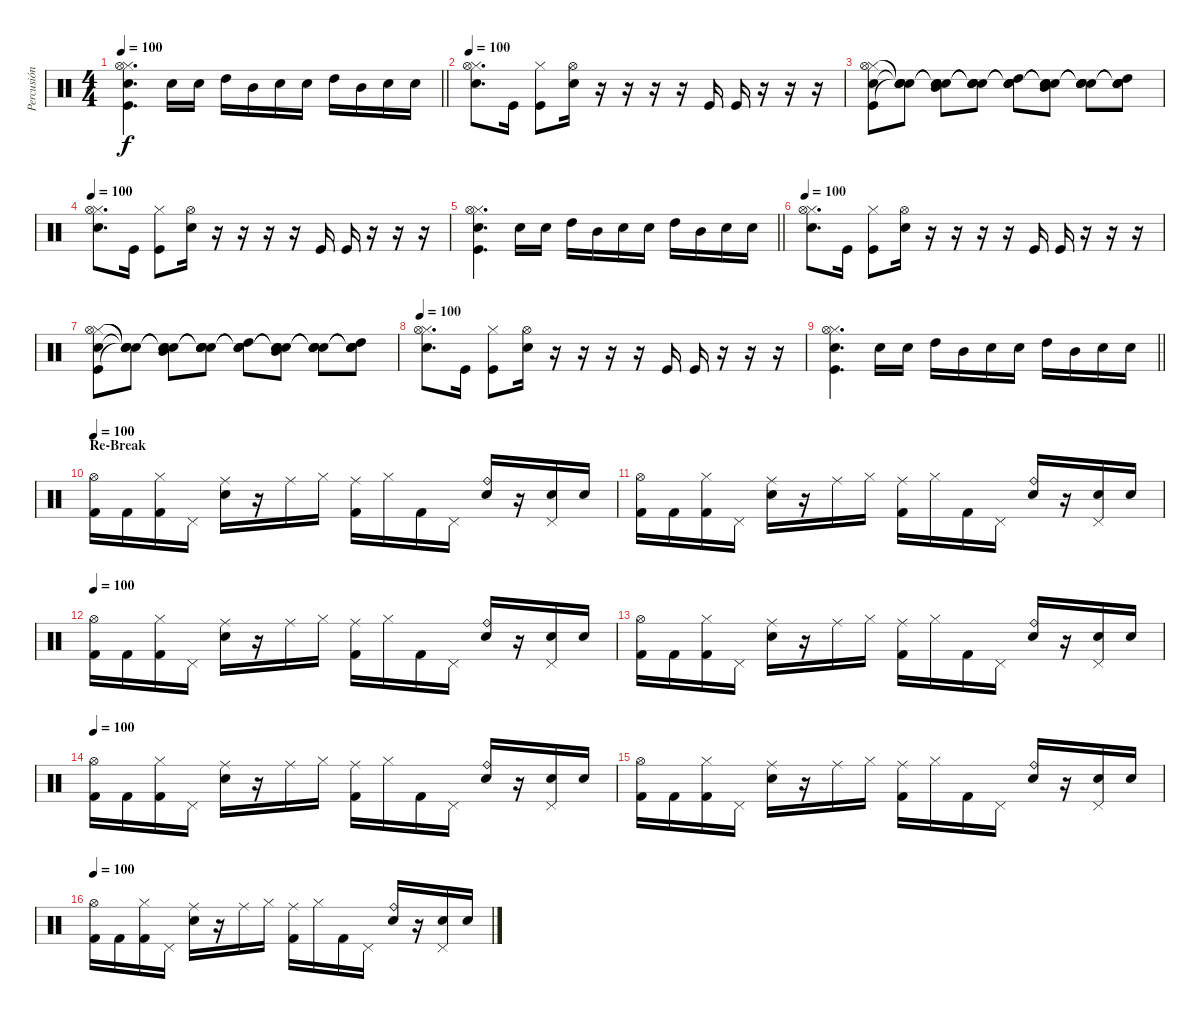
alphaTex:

\track ("Percusión" "Percusión") {instrument percussion}
\staff {score}
\articulation defaults
\ts (4 4)
\tempo 100
\clef neutral
\barLineRight lightlight
\ks c
("Hi-Hat (closed)" "Hi-Hat (open)" "Electric Snare (hit)" "Kick (hit)").4{d dy f} "Snare (hit) 2".16 "Electric Snare (hit)".16 "High Tom (hit)".16 "Mid Tom (hit)".16 "Snare (hit) 2".16 "Electric Snare (hit)".16 "High Tom (hit)".16 "Mid Tom (hit)".16 "Snare (hit) 2".16 "Electric Snare (hit)".16 |
\tempo 100
("Hi-Hat (closed)" "Hi-Hat (open)" "Electric Snare (hit)").8{d} "Kick (hit)".16 ("Hi-Hat (closed)" "Kick (hit)").8 ("Hi-Hat (open)" "Electric Snare (hit)").16 r.16 r.16 r.16 r.16 "Kick (hit)".16 "Kick (hit)".16 r.16 r.16 r.16 |
("Hi-Hat (closed)" "Hi-Hat (open)" "Electric Snare (hit)" "Kick (hit)").8 ("Snare (hit)"{t} "Snare (hit)"{t} "Snare (hit)"{t} "Snare (hit)"{t}).8 ("Snare (hit)"{t} "Snare (hit)"{t} "Mid Tom (hit)" "Snare (hit)"{t}).8{volume 7} ("Snare (hit)"{t} "Snare (hit)"{t} "Snare (hit) 2" "Snare (hit)"{t}).8 ("Snare (hit)"{t} "Snare (hit)"{t} "High Tom (hit)" "Snare (hit)"{t}).8{volume 4} ("Snare (hit)"{t} "Snare (hit)"{t} "Mid Tom (hit)" "Snare (hit)"{t}).8 ("Snare (hit)"{t} "Snare (hit)"{t} "Electric Snare (hit)" "Snare (hit)"{t}).8{volume 1} ("Snare (hit)"{t} "Snare (hit)"{t} "High Tom (hit)" "Snare (hit)"{t}).8 |
\tempo 100
("Hi-Hat (closed)" "Hi-Hat (open)" "Electric Snare (hit)").8{d volume 13} "Kick (hit)".16 ("Hi-Hat (closed)" "Kick (hit)").8 ("Hi-Hat (open)" "Electric Snare (hit)").16 r.16 r.16 r.16 r.16 "Kick (hit)".16 "Kick (hit)".16 r.16 r.16 r.16 |
\barLineRight lightlight
("Hi-Hat (closed)" "Hi-Hat (open)" "Electric Snare (hit)" "Kick (hit)").4{d} "Snare (hit) 2".16 "Electric Snare (hit)".16 "High Tom (hit)".16 "Mid Tom (hit)".16 "Snare (hit) 2".16 "Electric Snare (hit)".16 "High Tom (hit)".16 "Mid Tom (hit)".16 "Snare (hit) 2".16 "Electric Snare (hit)".16 |
\tempo 100
("Hi-Hat (closed)" "Hi-Hat (open)" "Electric Snare (hit)").8{d} "Kick (hit)".16 ("Hi-Hat (closed)" "Kick (hit)").8 ("Hi-Hat (open)" "Electric Snare (hit)").16 r.16 r.16 r.16 r.16 "Kick (hit)".16 "Kick (hit)".16 r.16 r.16 r.16 |
("Hi-Hat (closed)" "Hi-Hat (open)" "Electric Snare (hit)" "Kick (hit)").8 ("Snare (hit)"{t} "Snare (hit)"{t} "Snare (hit)"{t} "Snare (hit)"{t}).8 ("Snare (hit)"{t} "Snare (hit)"{t} "Mid Tom (hit)" "Snare (hit)"{t}).8{volume 7} ("Snare (hit)"{t} "Snare (hit)"{t} "Snare (hit) 2" "Snare (hit)"{t}).8 ("Snare (hit)"{t} "Snare (hit)"{t} "High Tom (hit)" "Snare (hit)"{t}).8{volume 4} ("Snare (hit)"{t} "Snare (hit)"{t} "Mid Tom (hit)" "Snare (hit)"{t}).8 ("Snare (hit)"{t} "Snare (hit)"{t} "Electric Snare (hit)" "Snare (hit)"{t}).8{volume 1} ("Snare (hit)"{t} "Snare (hit)"{t} "High Tom (hit)" "Snare (hit)"{t}).8 |
\tempo 100
("Hi-Hat (closed)" "Hi-Hat (open)" "Electric Snare (hit)").8{d volume 13} "Kick (hit)".16 ("Hi-Hat (closed)" "Kick (hit)").8 ("Hi-Hat (open)" "Electric Snare (hit)").16 r.16 r.16 r.16 r.16 "Kick (hit)".16 "Kick (hit)".16 r.16 r.16 r.16 |
\barLineRight lightlight
("Hi-Hat (closed)" "Hi-Hat (open)" "Electric Snare (hit)" "Kick (hit)").4{d} "Snare (hit) 2".16 "Electric Snare (hit)".16 "High Tom (hit)".16 "Mid Tom (hit)".16 "Snare (hit) 2".16 "Electric Snare (hit)".16 "High Tom (hit)".16 "Mid Tom (hit)".16 "Snare (hit) 2".16 "Electric Snare (hit)".16 |
\section ("" "Re-Break")
\tempo 100
("Kick (hit) 2" "Hi-Hat (open)").16 "Kick (hit) 2".16 ("Kick (hit) 2" "Hi-Hat (closed)").16 "Pedal Hi-Hat (hit)".16 ("Electric Snare (hit)" "Ride (middle)").16 r.16 "Ride (middle)".16 "Hi-Hat (closed)".16 ("Kick (hit) 2" "Ride (middle)").16 "Hi-Hat (closed)".16 "Kick (hit) 2".16 "Pedal Hi-Hat (hit)".16 ("Electric Snare (hit)" "Ride (bell)").16 r.16 ("Snare (hit) 2" "Pedal Hi-Hat (hit)").16 "Electric Snare (hit)".16 |
("Kick (hit) 2" "Hi-Hat (open)").16 "Kick (hit) 2".16 ("Kick (hit) 2" "Hi-Hat (closed)").16 "Pedal Hi-Hat (hit)".16 ("Electric Snare (hit)" "Ride (middle)").16 r.16 "Ride (middle)".16 "Hi-Hat (closed)".16 ("Kick (hit) 2" "Ride (middle)").16 "Hi-Hat (closed)".16 "Kick (hit) 2".16 "Pedal Hi-Hat (hit)".16 ("Electric Snare (hit)" "Ride (bell)").16 r.16 ("Snare (hit) 2" "Pedal Hi-Hat (hit)").16 "Electric Snare (hit)".16 |
\tempo 100
("Kick (hit) 2" "Hi-Hat (open)").16 "Kick (hit) 2".16 ("Kick (hit) 2" "Hi-Hat (closed)").16 "Pedal Hi-Hat (hit)".16 ("Electric Snare (hit)" "Ride (middle)").16 r.16 "Ride (middle)".16 "Hi-Hat (closed)".16 ("Kick (hit) 2" "Ride (middle)").16 "Hi-Hat (closed)".16 "Kick (hit) 2".16 "Pedal Hi-Hat (hit)".16 ("Electric Snare (hit)" "Ride (bell)").16 r.16 ("Snare (hit) 2" "Pedal Hi-Hat (hit)").16 "Electric Snare (hit)".16 |
("Kick (hit) 2" "Hi-Hat (open)").16 "Kick (hit) 2".16 ("Kick (hit) 2" "Hi-Hat (closed)").16 "Pedal Hi-Hat (hit)".16 ("Electric Snare (hit)" "Ride (middle)").16 r.16 "Ride (middle)".16 "Hi-Hat (closed)".16 ("Kick (hit) 2" "Ride (middle)").16 "Hi-Hat (closed)".16 "Kick (hit) 2".16 "Pedal Hi-Hat (hit)".16 ("Electric Snare (hit)" "Ride (bell)").16 r.16 ("Snare (hit) 2" "Pedal Hi-Hat (hit)").16 "Electric Snare (hit)".16 |
\tempo 100
("Kick (hit) 2" "Hi-Hat (open)").16 "Kick (hit) 2".16 ("Kick (hit) 2" "Hi-Hat (closed)").16 "Pedal Hi-Hat (hit)".16 ("Electric Snare (hit)" "Ride (middle)").16 r.16 "Ride (middle)".16 "Hi-Hat (closed)".16 ("Kick (hit) 2" "Ride (middle)").16 "Hi-Hat (closed)".16 "Kick (hit) 2".16 "Pedal Hi-Hat (hit)".16 ("Electric Snare (hit)" "Ride (bell)").16 r.16 ("Snare (hit) 2" "Pedal Hi-Hat (hit)").16 "Electric Snare (hit)".16 |
("Kick (hit) 2" "Hi-Hat (open)").16 "Kick (hit) 2".16 ("Kick (hit) 2" "Hi-Hat (closed)").16 "Pedal Hi-Hat (hit)".16 ("Electric Snare (hit)" "Ride (middle)").16 r.16 "Ride (middle)".16 "Hi-Hat (closed)".16 ("Kick (hit) 2" "Ride (middle)").16 "Hi-Hat (closed)".16 "Kick (hit) 2".16 "Pedal Hi-Hat (hit)".16 ("Electric Snare (hit)" "Ride (bell)").16 r.16 ("Snare (hit) 2" "Pedal Hi-Hat (hit)").16 "Electric Snare (hit)".16 |
\tempo 100
("Kick (hit) 2" "Hi-Hat (open)").16 "Kick (hit) 2".16 ("Kick (hit) 2" "Hi-Hat (closed)").16 "Pedal Hi-Hat (hit)".16 ("Electric Snare (hit)" "Ride (middle)").16 r.16 "Ride (middle)".16 "Hi-Hat (closed)".16 ("Kick (hit) 2" "Ride (middle)").16 "Hi-Hat (closed)".16 "Kick (hit) 2".16 "Pedal Hi-Hat (hit)".16 ("Electric Snare (hit)" "Ride (bell)").16 r.16 ("Snare (hit) 2" "Pedal Hi-Hat (hit)").16 "Electric Snare (hit)".16
